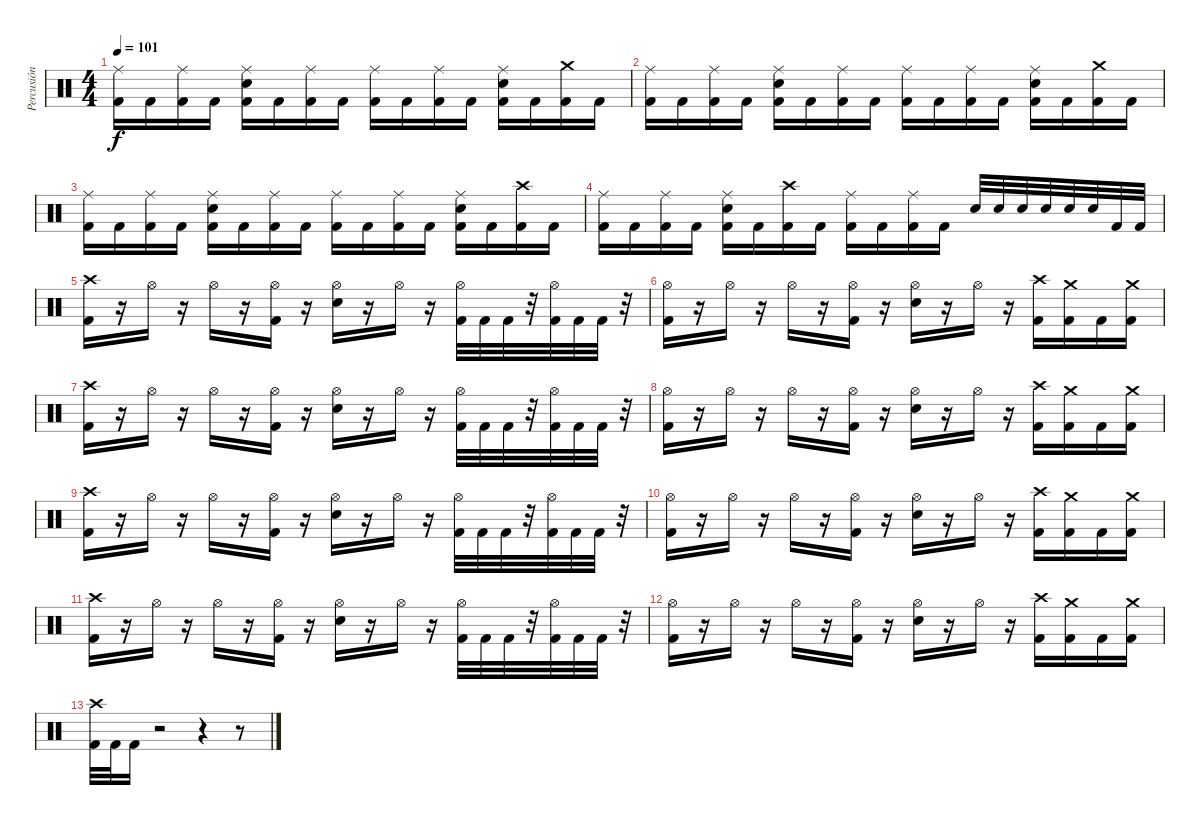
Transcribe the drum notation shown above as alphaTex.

\track ("Percusión" "Percusión") {instrument percussion}
\staff {score}
\articulation defaults
\ts (4 4)
\tempo 101
\clef neutral
\ks c
("Ride (middle)" "Kick (hit) 2").16{dy f} "Kick (hit) 2".16 ("Ride (middle)" "Kick (hit) 2").16 "Kick (hit) 2".16 ("Ride (middle)" "Electric Snare (hit)" "Kick (hit) 2").16 "Kick (hit) 2".16 ("Ride (middle)" "Kick (hit) 2").16 "Kick (hit) 2".16 ("Ride (middle)" "Kick (hit) 2").16 "Kick (hit) 2".16 ("Ride (middle)" "Kick (hit) 2").16 "Kick (hit) 2".16 ("Ride (middle)" "Electric Snare (hit)" "Kick (hit) 2").16 "Kick (hit) 2".16 ("Crash medium (hit)" "Kick (hit) 2").16 "Kick (hit) 2".16 |
("Ride (middle)" "Kick (hit) 2").16 "Kick (hit) 2".16 ("Ride (middle)" "Kick (hit) 2").16 "Kick (hit) 2".16 ("Electric Snare (hit)" "Ride (middle)" "Kick (hit) 2").16 "Kick (hit) 2".16 ("Ride (middle)" "Kick (hit) 2").16 "Kick (hit) 2".16 ("Ride (middle)" "Kick (hit) 2").16 "Kick (hit) 2".16 ("Ride (middle)" "Kick (hit) 2").16 "Kick (hit) 2".16 ("Ride (middle)" "Electric Snare (hit)" "Kick (hit) 2").16 "Kick (hit) 2".16 ("Crash medium (hit)" "Kick (hit) 2").16 "Kick (hit) 2".16 |
("Ride (middle)" "Kick (hit) 2").16 "Kick (hit) 2".16 ("Ride (middle)" "Kick (hit) 2").16 "Kick (hit) 2".16 ("Electric Snare (hit)" "Ride (middle)" "Kick (hit) 2").16 "Kick (hit) 2".16 ("Ride (middle)" "Kick (hit) 2").16 "Kick (hit) 2".16 ("Ride (middle)" "Kick (hit) 2").16 "Kick (hit) 2".16 ("Ride (middle)" "Kick (hit) 2").16 "Kick (hit) 2".16 ("Electric Snare (hit)" "Ride (middle)" "Kick (hit) 2").16 "Kick (hit) 2".16 ("Crash high (hit)" "Kick (hit) 2").16 "Kick (hit) 2".16 |
("Ride (middle)" "Kick (hit) 2").16 "Kick (hit) 2".16 ("Ride (middle)" "Kick (hit) 2").16 "Kick (hit) 2".16 ("Ride (middle)" "Electric Snare (hit)" "Kick (hit) 2").16 "Kick (hit) 2".16 ("Crash high (hit)" "Kick (hit) 2").16 "Kick (hit) 2".16 ("Ride (middle)" "Kick (hit) 2").16 "Kick (hit) 2".16 ("Ride (middle)" "Kick (hit) 2").16 "Kick (hit) 2".16 "Electric Snare (hit)".32 "Electric Snare (hit)".32 "Electric Snare (hit)".32 "Electric Snare (hit)".32 "Electric Snare (hit)".32 "Electric Snare (hit)".32 "Kick (hit) 2".32 "Kick (hit) 2".32 |
("Crash high (hit)" "Kick (hit) 2").16 r.16 "Hi-Hat (open)".16 r.16 "Hi-Hat (open)".16 r.16 ("Hi-Hat (open)" "Kick (hit) 2").16 r.16 ("Hi-Hat (open)" "Electric Snare (hit)").16 r.16 "Hi-Hat (open)".16 r.16 ("Hi-Hat (open)" "Kick (hit) 2").32 "Kick (hit) 2".32 "Kick (hit) 2".32 r.32 ("Hi-Hat (open)" "Kick (hit) 2").32 "Kick (hit) 2".32 "Kick (hit) 2".32 r.32 |
("Hi-Hat (open)" "Kick (hit) 2").16 r.16 "Hi-Hat (open)".16 r.16 "Hi-Hat (open)".16 r.16 ("Hi-Hat (open)" "Kick (hit) 2").16 r.16 ("Hi-Hat (open)" "Electric Snare (hit)").16 r.16 "Hi-Hat (open)".16 r.16 ("Crash high (hit)" "Kick (hit) 2").16 ("Crash medium (hit)" "Kick (hit) 2").16 "Kick (hit) 2".16 ("Crash medium (hit)" "Kick (hit) 2").16 |
("Crash high (hit)" "Kick (hit) 2").16 r.16 "Hi-Hat (open)".16 r.16 "Hi-Hat (open)".16 r.16 ("Hi-Hat (open)" "Kick (hit) 2").16 r.16 ("Hi-Hat (open)" "Electric Snare (hit)").16 r.16 "Hi-Hat (open)".16 r.16 ("Hi-Hat (open)" "Kick (hit) 2").32 "Kick (hit) 2".32 "Kick (hit) 2".32 r.32 ("Hi-Hat (open)" "Kick (hit) 2").32 "Kick (hit) 2".32 "Kick (hit) 2".32 r.32 |
("Hi-Hat (open)" "Kick (hit) 2").16 r.16 "Hi-Hat (open)".16 r.16 "Hi-Hat (open)".16 r.16 ("Hi-Hat (open)" "Kick (hit) 2").16 r.16 ("Hi-Hat (open)" "Electric Snare (hit)").16 r.16 "Hi-Hat (open)".16 r.16 ("Crash high (hit)" "Kick (hit) 2").16 ("Crash medium (hit)" "Kick (hit) 2").16 "Kick (hit) 2".16 ("Crash medium (hit)" "Kick (hit) 2").16 |
("Crash high (hit)" "Kick (hit) 2").16 r.16 "Hi-Hat (open)".16 r.16 "Hi-Hat (open)".16 r.16 ("Hi-Hat (open)" "Kick (hit) 2").16 r.16 ("Hi-Hat (open)" "Electric Snare (hit)").16 r.16 "Hi-Hat (open)".16 r.16 ("Hi-Hat (open)" "Kick (hit) 2").32 "Kick (hit) 2".32 "Kick (hit) 2".32 r.32 ("Hi-Hat (open)" "Kick (hit) 2").32 "Kick (hit) 2".32 "Kick (hit) 2".32 r.32 |
("Hi-Hat (open)" "Kick (hit) 2").16 r.16 "Hi-Hat (open)".16 r.16 "Hi-Hat (open)".16 r.16 ("Hi-Hat (open)" "Kick (hit) 2").16 r.16 ("Hi-Hat (open)" "Electric Snare (hit)").16 r.16 "Hi-Hat (open)".16 r.16 ("Crash high (hit)" "Kick (hit) 2").16 ("Crash medium (hit)" "Kick (hit) 2").16 "Kick (hit) 2".16 ("Crash medium (hit)" "Kick (hit) 2").16 |
("Crash high (hit)" "Kick (hit) 2").16 r.16 "Hi-Hat (open)".16 r.16 "Hi-Hat (open)".16 r.16 ("Hi-Hat (open)" "Kick (hit) 2").16 r.16 ("Hi-Hat (open)" "Electric Snare (hit)").16 r.16 "Hi-Hat (open)".16 r.16 ("Hi-Hat (open)" "Kick (hit) 2").32 "Kick (hit) 2".32 "Kick (hit) 2".32 r.32 ("Hi-Hat (open)" "Kick (hit) 2").32 "Kick (hit) 2".32 "Kick (hit) 2".32 r.32 |
("Hi-Hat (open)" "Kick (hit) 2").16 r.16 "Hi-Hat (open)".16 r.16 "Hi-Hat (open)".16 r.16 ("Hi-Hat (open)" "Kick (hit) 2").16 r.16 ("Hi-Hat (open)" "Electric Snare (hit)").16 r.16 "Hi-Hat (open)".16 r.16 ("Crash high (hit)" "Kick (hit) 2").16 ("Crash medium (hit)" "Kick (hit) 2").16 "Kick (hit) 2".16 ("Crash medium (hit)" "Kick (hit) 2").16 |
("Crash high (hit)" "Kick (hit) 2").32 "Kick (hit) 2".32 "Kick (hit) 2".16 r.2 r.4 r.8
